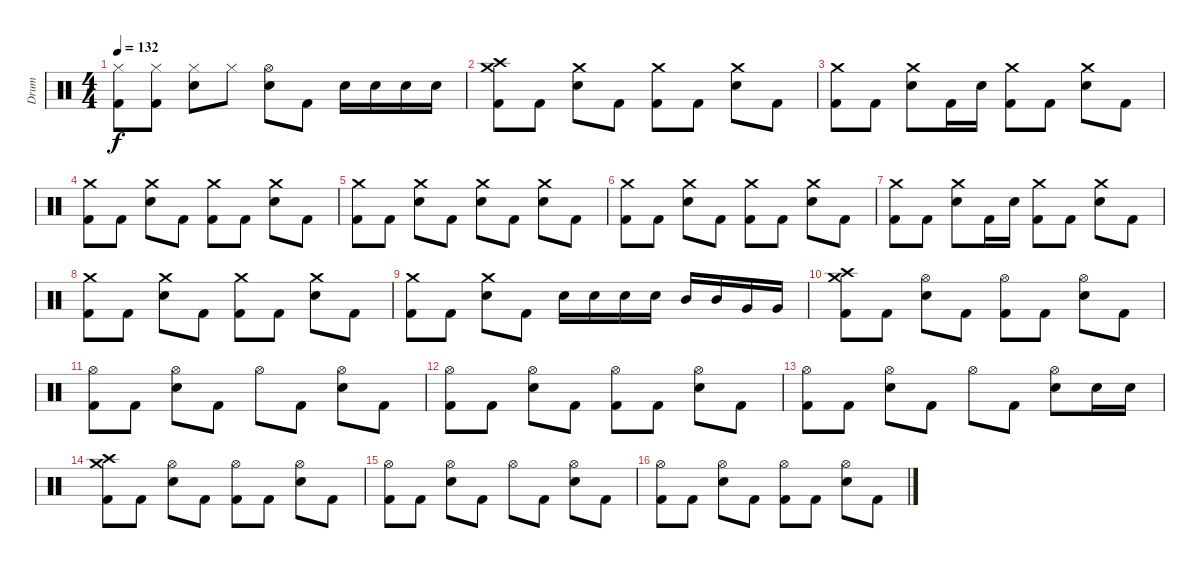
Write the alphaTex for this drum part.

\track ("Drum" "Drum") {instrument percussion}
\staff {score}
\articulation defaults
\ts (4 4)
\tempo 132
\clef neutral
\ks c
("Hi-Hat (closed)" "Kick (hit) 2").8{dy f} ("Hi-Hat (closed)" "Kick (hit) 2").8 ("Hi-Hat (closed)" "Snare (hit) 2").8 "Hi-Hat (closed)".8 ("Hi-Hat (open)" "Snare (hit) 2").8 "Kick (hit) 2".8 "Snare (hit) 2".16 "Snare (hit) 2".16 "Snare (hit) 2".16 "Snare (hit) 2".16 |
("Crash medium (hit)" "Kick (hit) 2" "Crash high (hit)").8 "Kick (hit) 2".8 ("Crash medium (hit)" "Snare (hit) 2").8 "Kick (hit) 2".8 ("Crash medium (hit)" "Kick (hit) 2").8 "Kick (hit) 2".8 ("Crash medium (hit)" "Snare (hit) 2").8 "Kick (hit) 2".8 |
("Crash medium (hit)" "Kick (hit) 2").8 "Kick (hit) 2".8 ("Crash medium (hit)" "Snare (hit) 2").8 "Kick (hit) 2".16 "Snare (hit) 2".16 ("Crash medium (hit)" "Kick (hit) 2").8 "Kick (hit) 2".8 ("Crash medium (hit)" "Snare (hit) 2").8 "Kick (hit) 2".8 |
("Crash medium (hit)" "Kick (hit) 2").8 "Kick (hit) 2".8 ("Crash medium (hit)" "Snare (hit) 2").8 "Kick (hit) 2".8 ("Crash medium (hit)" "Kick (hit) 2").8 "Kick (hit) 2".8 ("Crash medium (hit)" "Snare (hit) 2").8 "Kick (hit) 2".8 |
("Crash medium (hit)" "Kick (hit) 2").8 "Kick (hit) 2".8 ("Crash medium (hit)" "Snare (hit) 2").8 "Kick (hit) 2".8 ("Crash medium (hit)" "Snare (hit) 2").8 "Kick (hit) 2".8 ("Crash medium (hit)" "Snare (hit) 2").8 "Kick (hit) 2".8 |
("Crash medium (hit)" "Kick (hit) 2").8 "Kick (hit) 2".8 ("Crash medium (hit)" "Snare (hit) 2").8 "Kick (hit) 2".8 ("Crash medium (hit)" "Kick (hit) 2").8 "Kick (hit) 2".8 ("Crash medium (hit)" "Snare (hit) 2").8 "Kick (hit) 2".8 |
("Crash medium (hit)" "Kick (hit) 2").8 "Kick (hit) 2".8 ("Crash medium (hit)" "Snare (hit) 2").8 "Kick (hit) 2".16 "Snare (hit) 2".16 ("Crash medium (hit)" "Kick (hit) 2").8 "Kick (hit) 2".8 ("Crash medium (hit)" "Snare (hit) 2").8 "Kick (hit) 2".8 |
("Crash medium (hit)" "Kick (hit) 2").8 "Kick (hit) 2".8 ("Crash medium (hit)" "Snare (hit) 2").8 "Kick (hit) 2".8 ("Crash medium (hit)" "Kick (hit) 2").8 "Kick (hit) 2".8 ("Crash medium (hit)" "Snare (hit) 2").8 "Kick (hit) 2".8 |
("Crash medium (hit)" "Kick (hit) 2").8 "Kick (hit) 2".8 ("Crash medium (hit)" "Snare (hit) 2").8 "Kick (hit) 2".8 "Snare (hit) 2".16 "Snare (hit) 2".16 "Snare (hit) 2".16 "Snare (hit) 2".16 "Mid Tom (hit)".16 "Mid Tom (hit)".16 "Very Low Tom (hit)".16 "Very Low Tom (hit)".16 |
("Kick (hit) 2" "Crash high (hit)" "Crash medium (hit)").8 "Kick (hit) 2".8 ("Hi-Hat (open)" "Snare (hit) 2").8 "Kick (hit) 2".8 ("Hi-Hat (open)" "Kick (hit) 2").8 "Kick (hit) 2".8 ("Hi-Hat (open)" "Snare (hit) 2").8 "Kick (hit) 2".8 |
("Hi-Hat (open)" "Kick (hit) 2").8 "Kick (hit) 2".8 ("Hi-Hat (open)" "Snare (hit) 2").8 "Kick (hit) 2".8 "Hi-Hat (open)".8 "Kick (hit) 2".8 ("Hi-Hat (open)" "Snare (hit) 2").8 "Kick (hit) 2".8 |
("Hi-Hat (open)" "Kick (hit) 2").8 "Kick (hit) 2".8 ("Hi-Hat (open)" "Snare (hit) 2").8 "Kick (hit) 2".8 ("Hi-Hat (open)" "Kick (hit) 2").8 "Kick (hit) 2".8 ("Hi-Hat (open)" "Snare (hit) 2").8 "Kick (hit) 2".8 |
("Hi-Hat (open)" "Kick (hit) 2").8 "Kick (hit) 2".8 ("Hi-Hat (open)" "Snare (hit) 2").8 "Kick (hit) 2".8 "Hi-Hat (open)".8 "Kick (hit) 2".8 ("Hi-Hat (open)" "Snare (hit) 2").8 "Snare (hit) 2".16 "Snare (hit) 2".16 |
("Kick (hit) 2" "Crash high (hit)" "Crash medium (hit)").8 "Kick (hit) 2".8 ("Hi-Hat (open)" "Snare (hit) 2").8 "Kick (hit) 2".8 ("Hi-Hat (open)" "Kick (hit) 2").8 "Kick (hit) 2".8 ("Hi-Hat (open)" "Snare (hit) 2").8 "Kick (hit) 2".8 |
("Hi-Hat (open)" "Kick (hit) 2").8 "Kick (hit) 2".8 ("Hi-Hat (open)" "Snare (hit) 2").8 "Kick (hit) 2".8 "Hi-Hat (open)".8 "Kick (hit) 2".8 ("Hi-Hat (open)" "Snare (hit) 2").8 "Kick (hit) 2".8 |
("Hi-Hat (open)" "Kick (hit) 2").8 "Kick (hit) 2".8 ("Hi-Hat (open)" "Snare (hit) 2").8 "Kick (hit) 2".8 ("Hi-Hat (open)" "Kick (hit) 2").8 "Kick (hit) 2".8 ("Hi-Hat (open)" "Snare (hit) 2").8 "Kick (hit) 2".8
